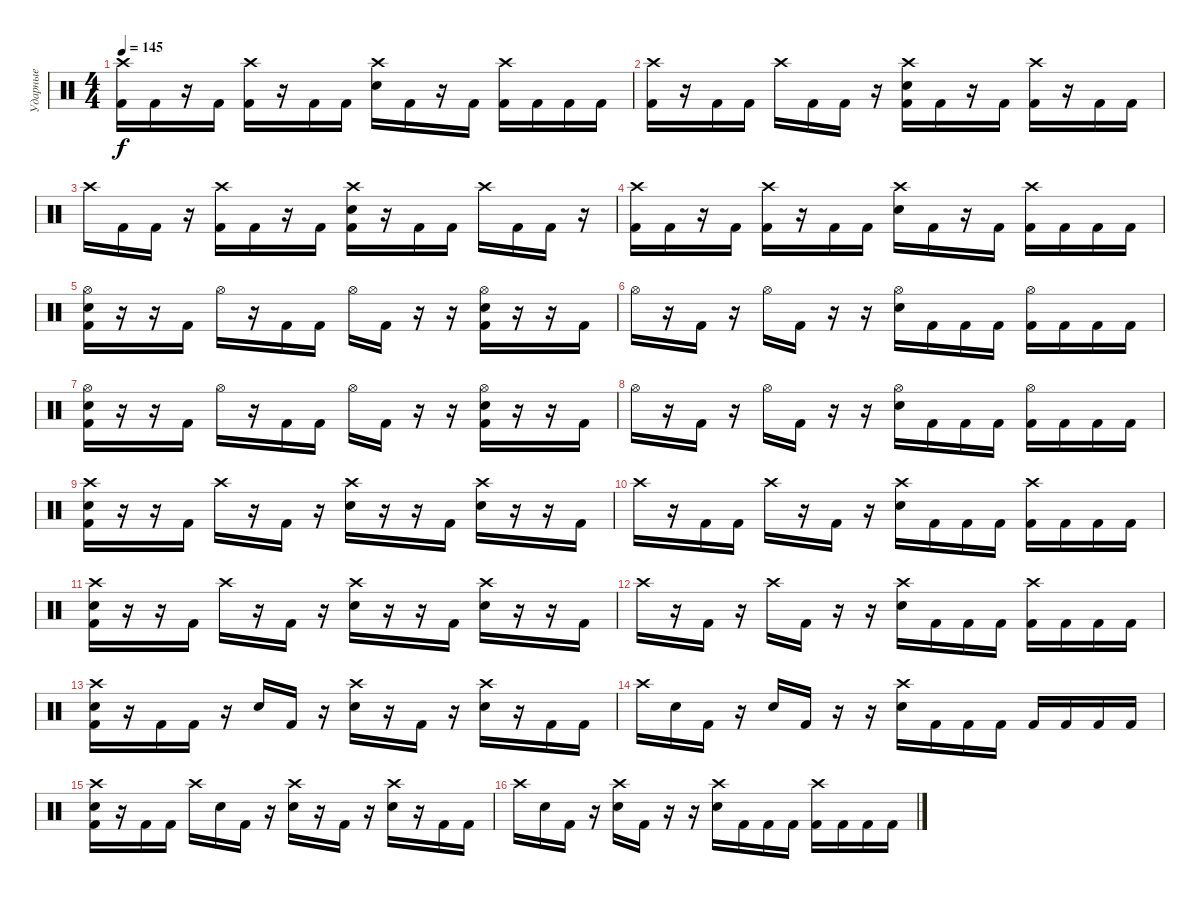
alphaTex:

\track ("Ударные" "Ударные") {instrument percussion}
\staff {score}
\articulation defaults
\ts (4 4)
\tempo 145
\clef neutral
\ks c
("Crash high (hit)" "Kick (hit) 2").16{dy f} "Kick (hit) 2".16 r.16 "Kick (hit) 2".16 ("Crash high (hit)" "Kick (hit) 2").16 r.16 "Kick (hit) 2".16 "Kick (hit) 2".16 ("Crash high (hit)" "Electric Snare (hit)").16 "Kick (hit) 2".16 r.16 "Kick (hit) 2".16 ("Crash high (hit)" "Kick (hit) 2").16 "Kick (hit) 2".16 "Kick (hit) 2".16 "Kick (hit) 2".16 |
("Crash high (hit)" "Kick (hit) 2").16 r.16 "Kick (hit) 2".16 "Kick (hit) 2".16 "Crash high (hit)".16 "Kick (hit) 2".16 "Kick (hit) 2".16 r.16 ("Crash high (hit)" "Electric Snare (hit)" "Kick (hit) 2").16 "Kick (hit) 2".16 r.16 "Kick (hit) 2".16 ("Crash high (hit)" "Kick (hit) 2").16 r.16 "Kick (hit) 2".16 "Kick (hit) 2".16 |
"Crash high (hit)".16 "Kick (hit) 2".16 "Kick (hit) 2".16 r.16 ("Crash high (hit)" "Kick (hit) 2").16 "Kick (hit) 2".16 r.16 "Kick (hit) 2".16 ("Crash high (hit)" "Electric Snare (hit)" "Kick (hit) 2").16 r.16 "Kick (hit) 2".16 "Kick (hit) 2".16 "Crash high (hit)".16 "Kick (hit) 2".16 "Kick (hit) 2".16 r.16 |
("Crash high (hit)" "Kick (hit) 2").16 "Kick (hit) 2".16 r.16 "Kick (hit) 2".16 ("Crash high (hit)" "Kick (hit) 2").16 r.16 "Kick (hit) 2".16 "Kick (hit) 2".16 ("Crash high (hit)" "Electric Snare (hit)").16 "Kick (hit) 2".16 r.16 "Kick (hit) 2".16 ("Crash high (hit)" "Kick (hit) 2").16 "Kick (hit) 2".16 "Kick (hit) 2".16 "Kick (hit) 2".16 |
("Hi-Hat (open)" "Electric Snare (hit)" "Kick (hit) 2").16 r.16 r.16 "Kick (hit) 2".16 "Hi-Hat (open)".16 r.16 "Kick (hit) 2".16 "Kick (hit) 2".16 "Hi-Hat (open)".16 "Kick (hit) 2".16 r.16 r.16 ("Hi-Hat (open)" "Electric Snare (hit)" "Kick (hit) 2").16 r.16 r.16 "Kick (hit) 2".16 |
"Hi-Hat (open)".16 r.16 "Kick (hit) 2".16 r.16 "Hi-Hat (open)".16 "Kick (hit) 2".16 r.16 r.16 ("Hi-Hat (open)" "Electric Snare (hit)").16 "Kick (hit) 2".16 "Kick (hit) 2".16 "Kick (hit) 2".16 ("Hi-Hat (open)" "Kick (hit) 2").16 "Kick (hit) 2".16 "Kick (hit) 2".16 "Kick (hit) 2".16 |
("Hi-Hat (open)" "Electric Snare (hit)" "Kick (hit) 2").16 r.16 r.16 "Kick (hit) 2".16 "Hi-Hat (open)".16 r.16 "Kick (hit) 2".16 "Kick (hit) 2".16 "Hi-Hat (open)".16 "Kick (hit) 2".16 r.16 r.16 ("Hi-Hat (open)" "Electric Snare (hit)" "Kick (hit) 2").16 r.16 r.16 "Kick (hit) 2".16 |
"Hi-Hat (open)".16 r.16 "Kick (hit) 2".16 r.16 "Hi-Hat (open)".16 "Kick (hit) 2".16 r.16 r.16 ("Hi-Hat (open)" "Electric Snare (hit)").16 "Kick (hit) 2".16 "Kick (hit) 2".16 "Kick (hit) 2".16 ("Hi-Hat (open)" "Kick (hit) 2").16 "Kick (hit) 2".16 "Kick (hit) 2".16 "Kick (hit) 2".16 |
("Crash high (hit)" "Electric Snare (hit)" "Kick (hit) 2").16 r.16 r.16 "Kick (hit) 2".16 "Crash high (hit)".16 r.16 "Kick (hit) 2".16 r.16 ("Crash high (hit)" "Electric Snare (hit)").16 r.16 r.16 "Kick (hit) 2".16 ("Crash high (hit)" "Electric Snare (hit)").16 r.16 r.16 "Kick (hit) 2".16 |
"Crash high (hit)".16 r.16 "Kick (hit) 2".16 "Kick (hit) 2".16 "Crash high (hit)".16 r.16 "Kick (hit) 2".16 r.16 ("Crash high (hit)" "Electric Snare (hit)").16 "Kick (hit) 2".16 "Kick (hit) 2".16 "Kick (hit) 2".16 ("Crash high (hit)" "Kick (hit) 2").16 "Kick (hit) 2".16 "Kick (hit) 2".16 "Kick (hit) 2".16 |
("Crash high (hit)" "Electric Snare (hit)" "Kick (hit) 2").16 r.16 r.16 "Kick (hit) 2".16 "Crash high (hit)".16 r.16 "Kick (hit) 2".16 r.16 ("Crash high (hit)" "Electric Snare (hit)").16 r.16 r.16 "Kick (hit) 2".16 ("Crash high (hit)" "Electric Snare (hit)").16 r.16 r.16 "Kick (hit) 2".16 |
"Crash high (hit)".16 r.16 "Kick (hit) 2".16 r.16 "Crash high (hit)".16 "Kick (hit) 2".16 r.16 r.16 ("Crash high (hit)" "Electric Snare (hit)").16 "Kick (hit) 2".16 "Kick (hit) 2".16 "Kick (hit) 2".16 ("Crash high (hit)" "Kick (hit) 2").16 "Kick (hit) 2".16 "Kick (hit) 2".16 "Kick (hit) 2".16 |
("Crash high (hit)" "Electric Snare (hit)" "Kick (hit) 2").16 r.16 "Kick (hit) 2".16 "Kick (hit) 2".16 r.16 "Electric Snare (hit)".16 "Kick (hit) 2".16 r.16 ("Crash high (hit)" "Electric Snare (hit)").16 r.16 "Kick (hit) 2".16 r.16 ("Crash high (hit)" "Electric Snare (hit)").16 r.16 "Kick (hit) 2".16 "Kick (hit) 2".16 |
"Crash high (hit)".16 "Electric Snare (hit)".16 "Kick (hit) 2".16 r.16 "Electric Snare (hit)".16 "Kick (hit) 2".16 r.16 r.16 ("Crash high (hit)" "Electric Snare (hit)").16 "Kick (hit) 2".16 "Kick (hit) 2".16 "Kick (hit) 2".16 "Kick (hit) 2".16 "Kick (hit) 2".16 "Kick (hit) 2".16 "Kick (hit) 2".16 |
("Crash high (hit)" "Electric Snare (hit)" "Kick (hit) 2").16 r.16 "Kick (hit) 2".16 "Kick (hit) 2".16 "Crash high (hit)".16 "Electric Snare (hit)".16 "Kick (hit) 2".16 r.16 ("Crash high (hit)" "Electric Snare (hit)").16 r.16 "Kick (hit) 2".16 r.16 ("Crash high (hit)" "Electric Snare (hit)").16 r.16 "Kick (hit) 2".16 "Kick (hit) 2".16 |
"Crash high (hit)".16 "Electric Snare (hit)".16 "Kick (hit) 2".16 r.16 ("Crash high (hit)" "Electric Snare (hit)").16 "Kick (hit) 2".16 r.16 r.16 ("Crash high (hit)" "Electric Snare (hit)").16 "Kick (hit) 2".16 "Kick (hit) 2".16 "Kick (hit) 2".16 ("Crash high (hit)" "Kick (hit) 2").16 "Kick (hit) 2".16 "Kick (hit) 2".16 "Kick (hit) 2".16
